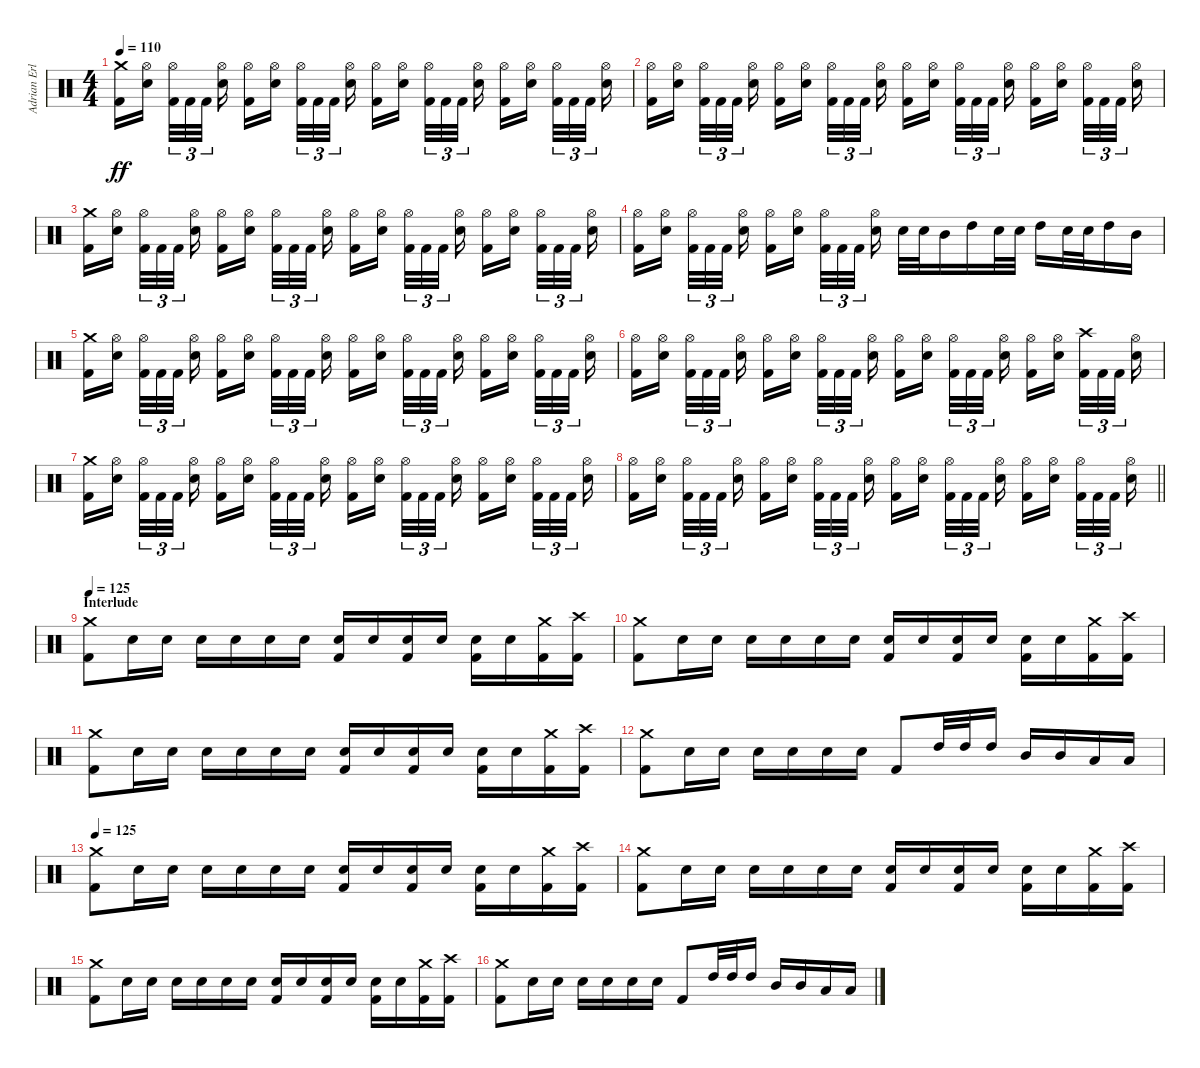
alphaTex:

\track ("Adrian Erlandsson" "Adrian Erl") {instrument percussion}
\staff {score}
\articulation defaults
\ts (4 4)
\tempo 110
\clef neutral
\ks c
("Kick (hit) 2" "Crash medium (hit)").16{dy ff} ("Electric Snare (hit)" "Hi-Hat (open)").16{beam splitsecondary} ("Kick (hit) 2" "Hi-Hat (open)").32{tu (3 2)} "Kick (hit) 2".32{tu (3 2)} "Kick (hit) 2".32{tu (3 2) beam splitsecondary} ("Electric Snare (hit)" "Hi-Hat (open)").16 ("Kick (hit) 2" "Hi-Hat (open)").16 ("Electric Snare (hit)" "Hi-Hat (open)").16{beam splitsecondary} ("Kick (hit) 2" "Hi-Hat (open)").32{tu (3 2)} "Kick (hit) 2".32{tu (3 2)} "Kick (hit) 2".32{tu (3 2) beam splitsecondary} ("Electric Snare (hit)" "Hi-Hat (open)").16 ("Kick (hit) 2" "Hi-Hat (open)").16 ("Electric Snare (hit)" "Hi-Hat (open)").16{beam splitsecondary} ("Kick (hit) 2" "Hi-Hat (open)").32{tu (3 2)} "Kick (hit) 2".32{tu (3 2)} "Kick (hit) 2".32{tu (3 2) beam splitsecondary} ("Electric Snare (hit)" "Hi-Hat (open)").16 ("Kick (hit) 2" "Hi-Hat (open)").16 ("Electric Snare (hit)" "Hi-Hat (open)").16{beam splitsecondary} ("Kick (hit) 2" "Hi-Hat (open)").32{tu (3 2)} "Kick (hit) 2".32{tu (3 2)} "Kick (hit) 2".32{tu (3 2) beam splitsecondary} ("Electric Snare (hit)" "Hi-Hat (open)").16 |
("Kick (hit) 2" "Hi-Hat (open)").16 ("Electric Snare (hit)" "Hi-Hat (open)").16{beam splitsecondary} ("Kick (hit) 2" "Hi-Hat (open)").32{tu (3 2)} "Kick (hit) 2".32{tu (3 2)} "Kick (hit) 2".32{tu (3 2) beam splitsecondary} ("Electric Snare (hit)" "Hi-Hat (open)").16 ("Kick (hit) 2" "Hi-Hat (open)").16 ("Electric Snare (hit)" "Hi-Hat (open)").16{beam splitsecondary} ("Kick (hit) 2" "Hi-Hat (open)").32{tu (3 2)} "Kick (hit) 2".32{tu (3 2)} "Kick (hit) 2".32{tu (3 2) beam splitsecondary} ("Electric Snare (hit)" "Hi-Hat (open)").16 ("Kick (hit) 2" "Hi-Hat (open)").16 ("Electric Snare (hit)" "Hi-Hat (open)").16{beam splitsecondary} ("Kick (hit) 2" "Hi-Hat (open)").32{tu (3 2)} "Kick (hit) 2".32{tu (3 2)} "Kick (hit) 2".32{tu (3 2) beam splitsecondary} ("Electric Snare (hit)" "Hi-Hat (open)").16 ("Kick (hit) 2" "Hi-Hat (open)").16 ("Electric Snare (hit)" "Hi-Hat (open)").16{beam splitsecondary} ("Kick (hit) 2" "Hi-Hat (open)").32{tu (3 2)} "Kick (hit) 2".32{tu (3 2)} "Kick (hit) 2".32{tu (3 2) beam splitsecondary} ("Electric Snare (hit)" "Hi-Hat (open)").16 |
("Kick (hit) 2" "Crash medium (hit)").16 ("Electric Snare (hit)" "Hi-Hat (open)").16{beam splitsecondary} ("Kick (hit) 2" "Hi-Hat (open)").32{tu (3 2)} "Kick (hit) 2".32{tu (3 2)} "Kick (hit) 2".32{tu (3 2) beam splitsecondary} ("Electric Snare (hit)" "Hi-Hat (open)").16 ("Kick (hit) 2" "Hi-Hat (open)").16 ("Electric Snare (hit)" "Hi-Hat (open)").16{beam splitsecondary} ("Kick (hit) 2" "Hi-Hat (open)").32{tu (3 2)} "Kick (hit) 2".32{tu (3 2)} "Kick (hit) 2".32{tu (3 2) beam splitsecondary} ("Electric Snare (hit)" "Hi-Hat (open)").16 ("Kick (hit) 2" "Hi-Hat (open)").16 ("Electric Snare (hit)" "Hi-Hat (open)").16{beam splitsecondary} ("Kick (hit) 2" "Hi-Hat (open)").32{tu (3 2)} "Kick (hit) 2".32{tu (3 2)} "Kick (hit) 2".32{tu (3 2) beam splitsecondary} ("Electric Snare (hit)" "Hi-Hat (open)").16 ("Kick (hit) 2" "Hi-Hat (open)").16 ("Electric Snare (hit)" "Hi-Hat (open)").16{beam splitsecondary} ("Kick (hit) 2" "Hi-Hat (open)").32{tu (3 2)} "Kick (hit) 2".32{tu (3 2)} "Kick (hit) 2".32{tu (3 2) beam splitsecondary} ("Electric Snare (hit)" "Hi-Hat (open)").16 |
("Kick (hit) 2" "Hi-Hat (open)").16 ("Electric Snare (hit)" "Hi-Hat (open)").16{beam splitsecondary} ("Kick (hit) 2" "Hi-Hat (open)").32{tu (3 2)} "Kick (hit) 2".32{tu (3 2)} "Kick (hit) 2".32{tu (3 2) beam splitsecondary} ("Electric Snare (hit)" "Hi-Hat (open)").16 ("Kick (hit) 2" "Hi-Hat (open)").16 ("Electric Snare (hit)" "Hi-Hat (open)").16{beam splitsecondary} ("Kick (hit) 2" "Hi-Hat (open)").32{tu (3 2)} "Kick (hit) 2".32{tu (3 2)} "Kick (hit) 2".32{tu (3 2) beam splitsecondary} ("Electric Snare (hit)" "Hi-Hat (open)").16 "Electric Snare (hit)".32 "Electric Snare (hit)".32 "Mid Tom (hit)".16 "High Tom (hit)".16 "Electric Snare (hit)".32 "Electric Snare (hit)".32 "High Tom (hit)".16 "Electric Snare (hit)".32 "Electric Snare (hit)".32 "High Tom (hit)".16 "Mid Tom (hit)".16 |
("Kick (hit) 2" "Crash medium (hit)").16 ("Electric Snare (hit)" "Hi-Hat (open)").16{beam splitsecondary} ("Kick (hit) 2" "Hi-Hat (open)").32{tu (3 2)} "Kick (hit) 2".32{tu (3 2)} "Kick (hit) 2".32{tu (3 2) beam splitsecondary} ("Electric Snare (hit)" "Hi-Hat (open)").16 ("Kick (hit) 2" "Hi-Hat (open)").16 ("Electric Snare (hit)" "Hi-Hat (open)").16{beam splitsecondary} ("Kick (hit) 2" "Hi-Hat (open)").32{tu (3 2)} "Kick (hit) 2".32{tu (3 2)} "Kick (hit) 2".32{tu (3 2) beam splitsecondary} ("Electric Snare (hit)" "Hi-Hat (open)").16 ("Kick (hit) 2" "Hi-Hat (open)").16 ("Electric Snare (hit)" "Hi-Hat (open)").16{beam splitsecondary} ("Kick (hit) 2" "Hi-Hat (open)").32{tu (3 2)} "Kick (hit) 2".32{tu (3 2)} "Kick (hit) 2".32{tu (3 2) beam splitsecondary} ("Electric Snare (hit)" "Hi-Hat (open)").16 ("Kick (hit) 2" "Hi-Hat (open)").16 ("Electric Snare (hit)" "Hi-Hat (open)").16{beam splitsecondary} ("Kick (hit) 2" "Hi-Hat (open)").32{tu (3 2)} "Kick (hit) 2".32{tu (3 2)} "Kick (hit) 2".32{tu (3 2) beam splitsecondary} ("Electric Snare (hit)" "Hi-Hat (open)").16 |
("Kick (hit) 2" "Hi-Hat (open)").16 ("Electric Snare (hit)" "Hi-Hat (open)").16{beam splitsecondary} ("Kick (hit) 2" "Hi-Hat (open)").32{tu (3 2)} "Kick (hit) 2".32{tu (3 2)} "Kick (hit) 2".32{tu (3 2) beam splitsecondary} ("Electric Snare (hit)" "Hi-Hat (open)").16 ("Kick (hit) 2" "Hi-Hat (open)").16 ("Electric Snare (hit)" "Hi-Hat (open)").16{beam splitsecondary} ("Kick (hit) 2" "Hi-Hat (open)").32{tu (3 2)} "Kick (hit) 2".32{tu (3 2)} "Kick (hit) 2".32{tu (3 2) beam splitsecondary} ("Electric Snare (hit)" "Hi-Hat (open)").16 ("Kick (hit) 2" "Hi-Hat (open)").16 ("Electric Snare (hit)" "Hi-Hat (open)").16{beam splitsecondary} ("Kick (hit) 2" "Hi-Hat (open)").32{tu (3 2)} "Kick (hit) 2".32{tu (3 2)} "Kick (hit) 2".32{tu (3 2) beam splitsecondary} ("Electric Snare (hit)" "Hi-Hat (open)").16 ("Kick (hit) 2" "Hi-Hat (open)").16 ("Electric Snare (hit)" "Hi-Hat (open)").16{beam splitsecondary} ("Kick (hit) 2" "Crash high (hit)").32{tu (3 2)} "Kick (hit) 2".32{tu (3 2)} "Kick (hit) 2".32{tu (3 2) beam splitsecondary} ("Electric Snare (hit)" "Hi-Hat (open)").16 |
("Kick (hit) 2" "Crash medium (hit)").16 ("Electric Snare (hit)" "Hi-Hat (open)").16{beam splitsecondary} ("Kick (hit) 2" "Hi-Hat (open)").32{tu (3 2)} "Kick (hit) 2".32{tu (3 2)} "Kick (hit) 2".32{tu (3 2) beam splitsecondary} ("Electric Snare (hit)" "Hi-Hat (open)").16 ("Kick (hit) 2" "Hi-Hat (open)").16 ("Electric Snare (hit)" "Hi-Hat (open)").16{beam splitsecondary} ("Kick (hit) 2" "Hi-Hat (open)").32{tu (3 2)} "Kick (hit) 2".32{tu (3 2)} "Kick (hit) 2".32{tu (3 2) beam splitsecondary} ("Electric Snare (hit)" "Hi-Hat (open)").16 ("Kick (hit) 2" "Hi-Hat (open)").16 ("Electric Snare (hit)" "Hi-Hat (open)").16{beam splitsecondary} ("Kick (hit) 2" "Hi-Hat (open)").32{tu (3 2)} "Kick (hit) 2".32{tu (3 2)} "Kick (hit) 2".32{tu (3 2) beam splitsecondary} ("Electric Snare (hit)" "Hi-Hat (open)").16 ("Kick (hit) 2" "Hi-Hat (open)").16 ("Electric Snare (hit)" "Hi-Hat (open)").16{beam splitsecondary} ("Kick (hit) 2" "Hi-Hat (open)").32{tu (3 2)} "Kick (hit) 2".32{tu (3 2)} "Kick (hit) 2".32{tu (3 2) beam splitsecondary} ("Electric Snare (hit)" "Hi-Hat (open)").16 |
\barLineRight lightlight
("Kick (hit) 2" "Hi-Hat (open)").16 ("Electric Snare (hit)" "Hi-Hat (open)").16{beam splitsecondary} ("Kick (hit) 2" "Hi-Hat (open)").32{tu (3 2)} "Kick (hit) 2".32{tu (3 2)} "Kick (hit) 2".32{tu (3 2) beam splitsecondary} ("Electric Snare (hit)" "Hi-Hat (open)").16 ("Kick (hit) 2" "Hi-Hat (open)").16 ("Electric Snare (hit)" "Hi-Hat (open)").16{beam splitsecondary} ("Kick (hit) 2" "Hi-Hat (open)").32{tu (3 2)} "Kick (hit) 2".32{tu (3 2)} "Kick (hit) 2".32{tu (3 2) beam splitsecondary} ("Electric Snare (hit)" "Hi-Hat (open)").16 ("Kick (hit) 2" "Hi-Hat (open)").16 ("Electric Snare (hit)" "Hi-Hat (open)").16{beam splitsecondary} ("Kick (hit) 2" "Hi-Hat (open)").32{tu (3 2)} "Kick (hit) 2".32{tu (3 2)} "Kick (hit) 2".32{tu (3 2) beam splitsecondary} ("Electric Snare (hit)" "Hi-Hat (open)").16 ("Kick (hit) 2" "Hi-Hat (open)").16 ("Electric Snare (hit)" "Hi-Hat (open)").16{beam splitsecondary} ("Kick (hit) 2" "Hi-Hat (open)").32{tu (3 2)} "Kick (hit) 2".32{tu (3 2)} "Kick (hit) 2".32{tu (3 2) beam splitsecondary} ("Electric Snare (hit)" "Hi-Hat (open)").16 |
\section ("" "Interlude")
\tempo 125
("Kick (hit) 2" "Crash medium (hit)").8 "Electric Snare (hit)".16 "Electric Snare (hit)".16 "Electric Snare (hit)".16 "Electric Snare (hit)".16 "Electric Snare (hit)".16 "Electric Snare (hit)".16 ("Kick (hit) 2" "Electric Snare (hit)").16 "Electric Snare (hit)".16 ("Kick (hit) 2" "Electric Snare (hit)").16 "Electric Snare (hit)".16 ("Kick (hit) 2" "Electric Snare (hit)").16 "Electric Snare (hit)".16 ("Kick (hit) 2" "Crash medium (hit)").16 ("Kick (hit) 2" "Crash high (hit)").16 |
("Kick (hit) 2" "Crash medium (hit)").8 "Electric Snare (hit)".16 "Electric Snare (hit)".16 "Electric Snare (hit)".16 "Electric Snare (hit)".16 "Electric Snare (hit)".16 "Electric Snare (hit)".16 ("Kick (hit) 2" "Electric Snare (hit)").16 "Electric Snare (hit)".16 ("Kick (hit) 2" "Electric Snare (hit)").16 "Electric Snare (hit)".16 ("Kick (hit) 2" "Electric Snare (hit)").16 "Electric Snare (hit)".16 ("Kick (hit) 2" "Crash medium (hit)").16 ("Kick (hit) 2" "Crash high (hit)").16 |
("Kick (hit) 2" "Crash medium (hit)").8 "Electric Snare (hit)".16 "Electric Snare (hit)".16 "Electric Snare (hit)".16 "Electric Snare (hit)".16 "Electric Snare (hit)".16 "Electric Snare (hit)".16 ("Kick (hit) 2" "Electric Snare (hit)").16 "Electric Snare (hit)".16 ("Kick (hit) 2" "Electric Snare (hit)").16 "Electric Snare (hit)".16 ("Kick (hit) 2" "Electric Snare (hit)").16 "Electric Snare (hit)".16 ("Kick (hit) 2" "Crash medium (hit)").16 ("Kick (hit) 2" "Crash high (hit)").16 |
("Kick (hit) 2" "Crash medium (hit)").8 "Electric Snare (hit)".16 "Electric Snare (hit)".16 "Electric Snare (hit)".16 "Electric Snare (hit)".16 "Electric Snare (hit)".16 "Electric Snare (hit)".16 "Kick (hit) 2".8 "High Tom (hit)".32 "High Tom (hit)".32 "High Tom (hit)".16 "Mid Tom (hit)".16 "Mid Tom (hit)".16 "Low Tom (hit)".16 "Low Tom (hit)".16 |
\tempo 125
("Kick (hit) 2" "Crash medium (hit)").8 "Electric Snare (hit)".16 "Electric Snare (hit)".16 "Electric Snare (hit)".16 "Electric Snare (hit)".16 "Electric Snare (hit)".16 "Electric Snare (hit)".16 ("Kick (hit) 2" "Electric Snare (hit)").16 "Electric Snare (hit)".16 ("Kick (hit) 2" "Electric Snare (hit)").16 "Electric Snare (hit)".16 ("Kick (hit) 2" "Electric Snare (hit)").16 "Electric Snare (hit)".16 ("Kick (hit) 2" "Crash medium (hit)").16 ("Kick (hit) 2" "Crash high (hit)").16 |
("Kick (hit) 2" "Crash medium (hit)").8 "Electric Snare (hit)".16 "Electric Snare (hit)".16 "Electric Snare (hit)".16 "Electric Snare (hit)".16 "Electric Snare (hit)".16 "Electric Snare (hit)".16 ("Kick (hit) 2" "Electric Snare (hit)").16 "Electric Snare (hit)".16 ("Kick (hit) 2" "Electric Snare (hit)").16 "Electric Snare (hit)".16 ("Kick (hit) 2" "Electric Snare (hit)").16 "Electric Snare (hit)".16 ("Kick (hit) 2" "Crash medium (hit)").16 ("Kick (hit) 2" "Crash high (hit)").16 |
("Kick (hit) 2" "Crash medium (hit)").8 "Electric Snare (hit)".16 "Electric Snare (hit)".16 "Electric Snare (hit)".16 "Electric Snare (hit)".16 "Electric Snare (hit)".16 "Electric Snare (hit)".16 ("Kick (hit) 2" "Electric Snare (hit)").16 "Electric Snare (hit)".16 ("Kick (hit) 2" "Electric Snare (hit)").16 "Electric Snare (hit)".16 ("Kick (hit) 2" "Electric Snare (hit)").16 "Electric Snare (hit)".16 ("Kick (hit) 2" "Crash medium (hit)").16 ("Kick (hit) 2" "Crash high (hit)").16 |
("Kick (hit) 2" "Crash medium (hit)").8 "Electric Snare (hit)".16 "Electric Snare (hit)".16 "Electric Snare (hit)".16 "Electric Snare (hit)".16 "Electric Snare (hit)".16 "Electric Snare (hit)".16 "Kick (hit) 2".8 "High Tom (hit)".32 "High Tom (hit)".32 "High Tom (hit)".16 "Mid Tom (hit)".16 "Mid Tom (hit)".16 "Low Tom (hit)".16 "Low Tom (hit)".16
